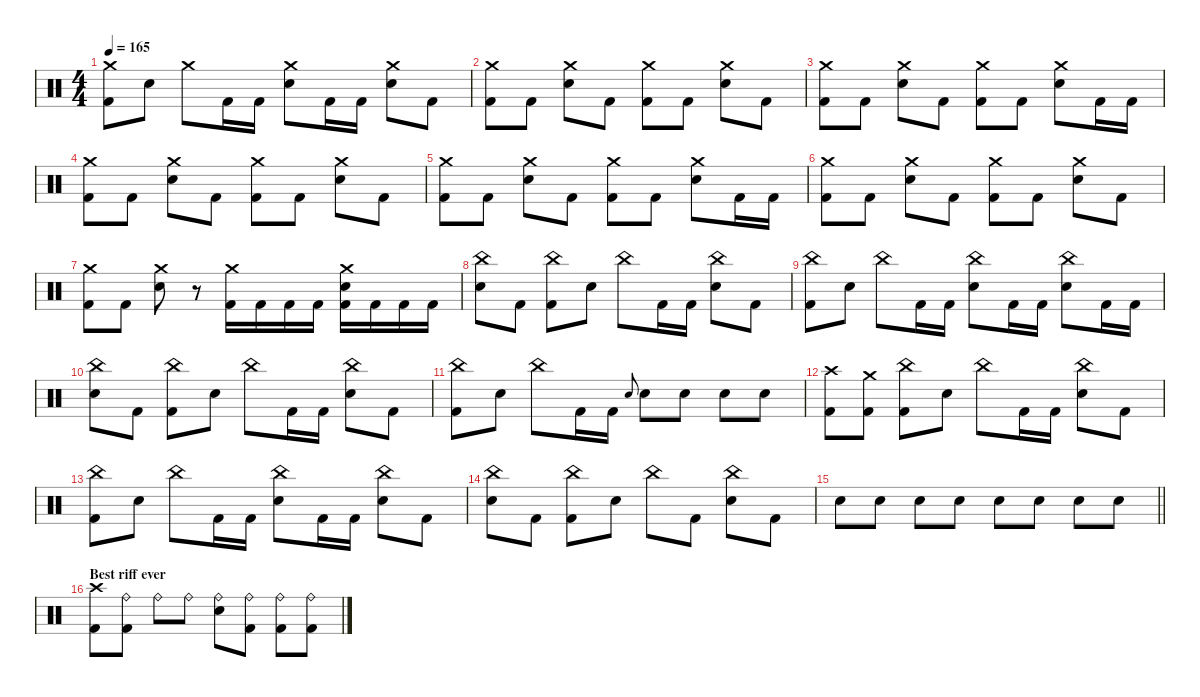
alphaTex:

\defaultSystemsLayout 4
\hideDynamics
\bracketExtendMode nobrackets
\singleTrackTrackNamePolicy hidden
\multiTrackTrackNamePolicy hidden
\firstSystemTrackNameMode fullname
\firstSystemTrackNameOrientation horizontal
\otherSystemsTrackNameOrientation horizontal
\track ("Percussions" "drm.") {instrument percussion}
\staff {score}
\articulation defaults
\ts (4 4)
\tempo 165
\clef neutral
\ks c
("Crash medium (hit)" "Kick (hit) 2").8{dy f beam Down} "Snare (hit) 2".8{beam Down} "Crash medium (hit)".8{beam Down} "Kick (hit) 2".16{beam Down} "Kick (hit) 2".16{beam Down} ("Crash medium (hit)" "Snare (hit) 2").8{beam Down} "Kick (hit) 2".16{beam Down} "Kick (hit) 2".16{beam Down} ("Crash medium (hit)" "Snare (hit) 2").8{beam Down} "Kick (hit) 2".8{beam Down} |
("Crash medium (hit)" "Kick (hit) 2").8{beam Down} "Kick (hit) 2".8{beam Down} ("Crash medium (hit)" "Snare (hit) 2").8{beam Down} "Kick (hit) 2".8{beam Down} ("Crash medium (hit)" "Kick (hit) 2").8{beam Down} "Kick (hit) 2".8{beam Down} ("Crash medium (hit)" "Snare (hit) 2").8{beam Down} "Kick (hit) 2".8{beam Down} |
("Crash medium (hit)" "Kick (hit) 2").8{beam Down} "Kick (hit) 2".8{beam Down} ("Crash medium (hit)" "Snare (hit) 2").8{beam Down} "Kick (hit) 2".8{beam Down} ("Crash medium (hit)" "Kick (hit) 2").8{beam Down} "Kick (hit) 2".8{beam Down} ("Crash medium (hit)" "Snare (hit) 2").8{beam Down} "Kick (hit) 2".16{beam Down} "Kick (hit) 2".16{beam Down} |
("Crash medium (hit)" "Kick (hit) 2").8{beam Down} "Kick (hit) 2".8{beam Down} ("Crash medium (hit)" "Snare (hit) 2").8{beam Down} "Kick (hit) 2".8{beam Down} ("Crash medium (hit)" "Kick (hit) 2").8{beam Down} "Kick (hit) 2".8{beam Down} ("Crash medium (hit)" "Snare (hit) 2").8{beam Down} "Kick (hit) 2".8{beam Down} |
("Crash medium (hit)" "Kick (hit) 2").8{beam Down} "Kick (hit) 2".8{beam Down} ("Crash medium (hit)" "Snare (hit) 2").8{beam Down} "Kick (hit) 2".8{beam Down} ("Crash medium (hit)" "Kick (hit) 2").8{beam Down} "Kick (hit) 2".8{beam Down} ("Crash medium (hit)" "Snare (hit) 2").8{beam Down} "Kick (hit) 2".16{beam Down} "Kick (hit) 2".16{beam Down} |
("Crash medium (hit)" "Kick (hit) 2").8{beam Down} "Kick (hit) 2".8{beam Down} ("Crash medium (hit)" "Snare (hit) 2").8{beam Down} "Kick (hit) 2".8{beam Down} ("Crash medium (hit)" "Kick (hit) 2").8{beam Down} "Kick (hit) 2".8{beam Down} ("Crash medium (hit)" "Snare (hit) 2").8{beam Down} "Kick (hit) 2".8{beam Down} |
("Crash medium (hit)" "Kick (hit) 2").8{beam Down} "Kick (hit) 2".8{beam Down} ("Crash medium (hit)" "Snare (hit) 2").8{beam Down} r.8{beam Down} ("Crash medium (hit)" "Kick (hit) 2").16{beam Down} "Kick (hit) 2".16{beam Down} "Kick (hit) 2".16{beam Down} "Kick (hit) 2".16{beam Down} ("Crash medium (hit)" "Snare (hit) 2" "Kick (hit) 2").16{beam Down} "Kick (hit) 2".16{beam Down} "Kick (hit) 2".16{beam Down} "Kick (hit) 2".16{beam Down} |
("China (hit)" "Snare (hit) 2").8{beam Down} "Kick (hit) 2".8{beam Down} ("China (hit)" "Kick (hit) 2").8{beam Down} "Snare (hit) 2".8{beam Down} "China (hit)".8{beam Down} "Kick (hit) 2".16{beam Down} "Kick (hit) 2".16{beam Down} ("China (hit)" "Snare (hit) 2").8{beam Down} "Kick (hit) 2".8{beam Down} |
("China (hit)" "Kick (hit) 2").8{beam Down} "Snare (hit) 2".8{beam Down} "China (hit)".8{beam Down} "Kick (hit) 2".16{beam Down} "Kick (hit) 2".16{beam Down} ("China (hit)" "Snare (hit) 2").8{beam Down} "Kick (hit) 2".16{beam Down} "Kick (hit) 2".16{beam Down} ("China (hit)" "Snare (hit) 2").8{beam Down} "Kick (hit) 2".16{beam Down} "Kick (hit) 2".16{beam Down} |
("China (hit)" "Snare (hit) 2").8{beam Down} "Kick (hit) 2".8{beam Down} ("China (hit)" "Kick (hit) 2").8{beam Down} "Snare (hit) 2".8{beam Down} "China (hit)".8{beam Down} "Kick (hit) 2".16{beam Down} "Kick (hit) 2".16{beam Down} ("China (hit)" "Snare (hit) 2").8{beam Down} "Kick (hit) 2".8{beam Down} |
("China (hit)" "Kick (hit) 2").8{beam Down} "Snare (hit) 2".8{beam Down} "China (hit)".8{beam Down} "Kick (hit) 2".16{beam Down} "Kick (hit) 2".16{beam Down} "Electric Snare (hit)".8{gr onbeat dy ff beam Up} "Snare (hit) 2".8{dy fff beam Down} "Snare (hit) 2".8{beam Down} "Snare (hit) 2".8{beam Down} "Snare (hit) 2".8{beam Down} |
("Crash high (hit)" "Kick (hit) 2").8{dy f beam Down} ("Crash medium (hit)" "Kick (hit) 2").8{beam Down} ("China (hit)" "Kick (hit) 2").8{beam Down} "Snare (hit) 2".8{beam Down} "China (hit)".8{beam Down} "Kick (hit) 2".16{beam Down} "Kick (hit) 2".16{beam Down} ("China (hit)" "Snare (hit) 2").8{beam Down} "Kick (hit) 2".8{beam Down} |
("China (hit)" "Kick (hit) 2").8{beam Down} "Snare (hit) 2".8{beam Down} "China (hit)".8{beam Down} "Kick (hit) 2".16{beam Down} "Kick (hit) 2".16{beam Down} ("China (hit)" "Snare (hit) 2").8{beam Down} "Kick (hit) 2".16{beam Down} "Kick (hit) 2".16{beam Down} ("China (hit)" "Snare (hit) 2").8{beam Down} "Kick (hit) 2".8{beam Down} |
("China (hit)" "Snare (hit) 2").8{beam Down} "Kick (hit) 2".8{beam Down} ("China (hit)" "Kick (hit) 2").8{beam Down} "Snare (hit) 2".8{beam Down} "China (hit)".8{beam Down} "Kick (hit) 2".8{beam Down} ("China (hit)" "Snare (hit) 2").8{beam Down} "Kick (hit) 2".8{beam Down} |
\barLineRight lightlight "Snare (hit) 2".8{beam Down} "Snare (hit) 2".8{beam Down} "Snare (hit) 2".8{beam Down} "Snare (hit) 2".8{beam Down} "Snare (hit) 2".8{beam Down} "Snare (hit) 2".8{beam Down} "Snare (hit) 2".8{beam Down} "Snare (hit) 2".8{beam Down}
|
\section ("" "Best riff ever")
("Crash high (hit)" "Kick (hit) 2").8{beam Down} ("Ride (bell)" "Kick (hit) 2").8{dy mp beam Down} "Ride (bell)".8{dy f beam Down} "Ride (bell)".8{dy mp beam Down} ("Ride (bell)" "Snare (hit) 2").8{dy f beam Down} ("Ride (bell)" "Kick (hit) 2").8{dy mp beam Down} ("Ride (bell)" "Kick (hit) 2").8{dy f beam Down} ("Ride (bell)" "Kick (hit) 2").8{dy mp beam Down}
